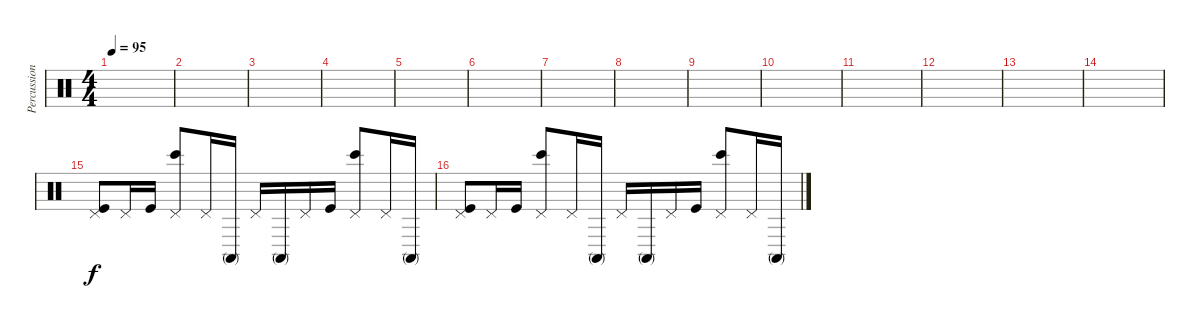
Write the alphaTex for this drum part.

\track ("Percussion" "Percussion") {instrument percussion}
\staff {score}
\articulation defaults
\ts (4 4)
\tempo 95
\clef neutral
\ks c
|
|
|
|
|
|
|
|
|
|
|
|
|
|
("Pedal Hi-Hat (hit)" "Kick (hit)").8 "Pedal Hi-Hat (hit)".16 "Kick (hit)".16 ("Pedal Hi-Hat (hit)" "Bongo High (hit)").8 "Pedal Hi-Hat (hit)".16 "Conga high (mute)".16 "Pedal Hi-Hat (hit)".16 "Conga high (mute)".16 "Pedal Hi-Hat (hit)".16 "Kick (hit)".16 ("Pedal Hi-Hat (hit)" "Bongo High (hit)").8 "Pedal Hi-Hat (hit)".16 "Conga high (mute)".16 |
("Pedal Hi-Hat (hit)" "Kick (hit)").8 "Pedal Hi-Hat (hit)".16 "Kick (hit)".16 ("Pedal Hi-Hat (hit)" "Bongo High (hit)").8 "Pedal Hi-Hat (hit)".16 "Conga high (mute)".16 "Pedal Hi-Hat (hit)".16 "Conga high (mute)".16 "Pedal Hi-Hat (hit)".16 "Kick (hit)".16 ("Pedal Hi-Hat (hit)" "Bongo High (hit)").8 "Pedal Hi-Hat (hit)".16 "Conga high (mute)".16
